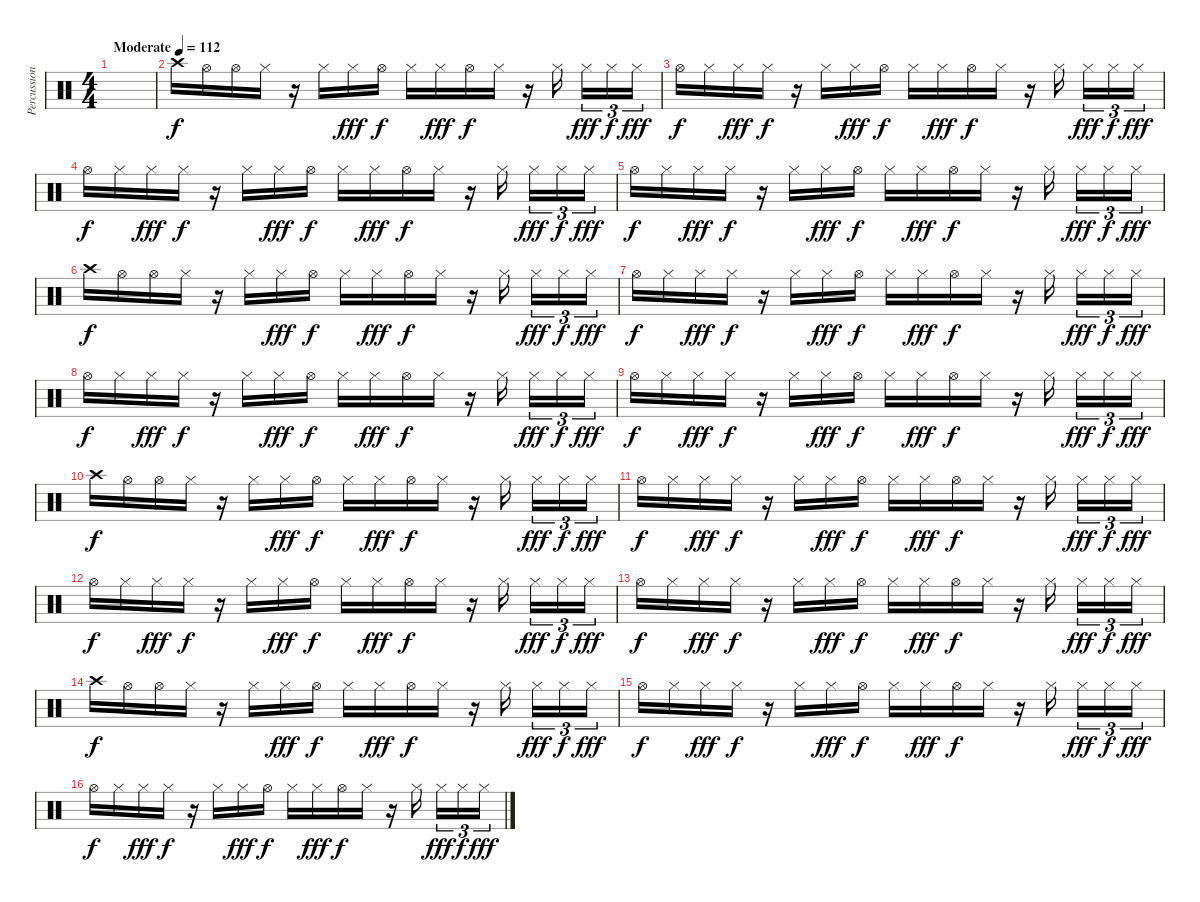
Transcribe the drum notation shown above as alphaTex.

\track ("Percussion" "Percussion") {instrument percussion}
\staff {score}
\articulation defaults
\ts (4 4)
\tempo (112 "Moderate")
\clef neutral
\ks c
|
"Crash high (hit)".16 "Hi-Hat (open)".16 "Hi-Hat (open)".16 "Hi-Hat (closed)".16 r.16 "Hi-Hat (closed)".16 "Hi-Hat (closed)".16{dy fff} "Hi-Hat (open)".16{dy f} "Hi-Hat (closed)".16 "Hi-Hat (closed)".16{dy fff} "Hi-Hat (open)".16{dy f} "Hi-Hat (closed)".16 r.16 "Hi-Hat (closed)".16{beam splitsecondary} "Hi-Hat (closed)".16{tu (3 2) dy fff} "Hi-Hat (closed)".16{tu (3 2) dy f} "Hi-Hat (closed)".16{tu (3 2) dy fff} |
"Hi-Hat (open)".16{dy f} "Hi-Hat (closed)".16 "Hi-Hat (closed)".16{dy fff} "Hi-Hat (closed)".16{dy f} r.16 "Hi-Hat (closed)".16 "Hi-Hat (closed)".16{dy fff} "Hi-Hat (open)".16{dy f} "Hi-Hat (closed)".16 "Hi-Hat (closed)".16{dy fff} "Hi-Hat (open)".16{dy f} "Hi-Hat (closed)".16 r.16 "Hi-Hat (closed)".16{beam splitsecondary} "Hi-Hat (closed)".16{tu (3 2) dy fff} "Hi-Hat (closed)".16{tu (3 2) dy f} "Hi-Hat (closed)".16{tu (3 2) dy fff} |
"Hi-Hat (open)".16{dy f} "Hi-Hat (closed)".16 "Hi-Hat (closed)".16{dy fff} "Hi-Hat (closed)".16{dy f} r.16 "Hi-Hat (closed)".16 "Hi-Hat (closed)".16{dy fff} "Hi-Hat (open)".16{dy f} "Hi-Hat (closed)".16 "Hi-Hat (closed)".16{dy fff} "Hi-Hat (open)".16{dy f} "Hi-Hat (closed)".16 r.16 "Hi-Hat (closed)".16{beam splitsecondary} "Hi-Hat (closed)".16{tu (3 2) dy fff} "Hi-Hat (closed)".16{tu (3 2) dy f} "Hi-Hat (closed)".16{tu (3 2) dy fff} |
"Hi-Hat (open)".16{dy f} "Hi-Hat (closed)".16 "Hi-Hat (closed)".16{dy fff} "Hi-Hat (closed)".16{dy f} r.16 "Hi-Hat (closed)".16 "Hi-Hat (closed)".16{dy fff} "Hi-Hat (open)".16{dy f} "Hi-Hat (closed)".16 "Hi-Hat (closed)".16{dy fff} "Hi-Hat (open)".16{dy f} "Hi-Hat (closed)".16 r.16 "Hi-Hat (closed)".16{beam splitsecondary} "Hi-Hat (closed)".16{tu (3 2) dy fff} "Hi-Hat (closed)".16{tu (3 2) dy f} "Hi-Hat (closed)".16{tu (3 2) dy fff} |
"Crash high (hit)".16{dy f} "Hi-Hat (open)".16 "Hi-Hat (open)".16 "Hi-Hat (closed)".16 r.16 "Hi-Hat (closed)".16 "Hi-Hat (closed)".16{dy fff} "Hi-Hat (open)".16{dy f} "Hi-Hat (closed)".16 "Hi-Hat (closed)".16{dy fff} "Hi-Hat (open)".16{dy f} "Hi-Hat (closed)".16 r.16 "Hi-Hat (closed)".16{beam splitsecondary} "Hi-Hat (closed)".16{tu (3 2) dy fff} "Hi-Hat (closed)".16{tu (3 2) dy f} "Hi-Hat (closed)".16{tu (3 2) dy fff} |
"Hi-Hat (open)".16{dy f} "Hi-Hat (closed)".16 "Hi-Hat (closed)".16{dy fff} "Hi-Hat (closed)".16{dy f} r.16 "Hi-Hat (closed)".16 "Hi-Hat (closed)".16{dy fff} "Hi-Hat (open)".16{dy f} "Hi-Hat (closed)".16 "Hi-Hat (closed)".16{dy fff} "Hi-Hat (open)".16{dy f} "Hi-Hat (closed)".16 r.16 "Hi-Hat (closed)".16{beam splitsecondary} "Hi-Hat (closed)".16{tu (3 2) dy fff} "Hi-Hat (closed)".16{tu (3 2) dy f} "Hi-Hat (closed)".16{tu (3 2) dy fff} |
"Hi-Hat (open)".16{dy f} "Hi-Hat (closed)".16 "Hi-Hat (closed)".16{dy fff} "Hi-Hat (closed)".16{dy f} r.16 "Hi-Hat (closed)".16 "Hi-Hat (closed)".16{dy fff} "Hi-Hat (open)".16{dy f} "Hi-Hat (closed)".16 "Hi-Hat (closed)".16{dy fff} "Hi-Hat (open)".16{dy f} "Hi-Hat (closed)".16 r.16 "Hi-Hat (closed)".16{beam splitsecondary} "Hi-Hat (closed)".16{tu (3 2) dy fff} "Hi-Hat (closed)".16{tu (3 2) dy f} "Hi-Hat (closed)".16{tu (3 2) dy fff} |
"Hi-Hat (open)".16{dy f} "Hi-Hat (closed)".16 "Hi-Hat (closed)".16{dy fff} "Hi-Hat (closed)".16{dy f} r.16 "Hi-Hat (closed)".16 "Hi-Hat (closed)".16{dy fff} "Hi-Hat (open)".16{dy f} "Hi-Hat (closed)".16 "Hi-Hat (closed)".16{dy fff} "Hi-Hat (open)".16{dy f} "Hi-Hat (closed)".16 r.16 "Hi-Hat (closed)".16{beam splitsecondary} "Hi-Hat (closed)".16{tu (3 2) dy fff} "Hi-Hat (closed)".16{tu (3 2) dy f} "Hi-Hat (closed)".16{tu (3 2) dy fff} |
"Crash high (hit)".16{dy f} "Hi-Hat (open)".16 "Hi-Hat (open)".16 "Hi-Hat (closed)".16 r.16 "Hi-Hat (closed)".16 "Hi-Hat (closed)".16{dy fff} "Hi-Hat (open)".16{dy f} "Hi-Hat (closed)".16 "Hi-Hat (closed)".16{dy fff} "Hi-Hat (open)".16{dy f} "Hi-Hat (closed)".16 r.16 "Hi-Hat (closed)".16{beam splitsecondary} "Hi-Hat (closed)".16{tu (3 2) dy fff} "Hi-Hat (closed)".16{tu (3 2) dy f} "Hi-Hat (closed)".16{tu (3 2) dy fff} |
"Hi-Hat (open)".16{dy f} "Hi-Hat (closed)".16 "Hi-Hat (closed)".16{dy fff} "Hi-Hat (closed)".16{dy f} r.16 "Hi-Hat (closed)".16 "Hi-Hat (closed)".16{dy fff} "Hi-Hat (open)".16{dy f} "Hi-Hat (closed)".16 "Hi-Hat (closed)".16{dy fff} "Hi-Hat (open)".16{dy f} "Hi-Hat (closed)".16 r.16 "Hi-Hat (closed)".16{beam splitsecondary} "Hi-Hat (closed)".16{tu (3 2) dy fff} "Hi-Hat (closed)".16{tu (3 2) dy f} "Hi-Hat (closed)".16{tu (3 2) dy fff} |
"Hi-Hat (open)".16{dy f} "Hi-Hat (closed)".16 "Hi-Hat (closed)".16{dy fff} "Hi-Hat (closed)".16{dy f} r.16 "Hi-Hat (closed)".16 "Hi-Hat (closed)".16{dy fff} "Hi-Hat (open)".16{dy f} "Hi-Hat (closed)".16 "Hi-Hat (closed)".16{dy fff} "Hi-Hat (open)".16{dy f} "Hi-Hat (closed)".16 r.16 "Hi-Hat (closed)".16{beam splitsecondary} "Hi-Hat (closed)".16{tu (3 2) dy fff} "Hi-Hat (closed)".16{tu (3 2) dy f} "Hi-Hat (closed)".16{tu (3 2) dy fff} |
"Hi-Hat (open)".16{dy f} "Hi-Hat (closed)".16 "Hi-Hat (closed)".16{dy fff} "Hi-Hat (closed)".16{dy f} r.16 "Hi-Hat (closed)".16 "Hi-Hat (closed)".16{dy fff} "Hi-Hat (open)".16{dy f} "Hi-Hat (closed)".16 "Hi-Hat (closed)".16{dy fff} "Hi-Hat (open)".16{dy f} "Hi-Hat (closed)".16 r.16 "Hi-Hat (closed)".16{beam splitsecondary} "Hi-Hat (closed)".16{tu (3 2) dy fff} "Hi-Hat (closed)".16{tu (3 2) dy f} "Hi-Hat (closed)".16{tu (3 2) dy fff} |
"Crash high (hit)".16{dy f} "Hi-Hat (open)".16 "Hi-Hat (open)".16 "Hi-Hat (closed)".16 r.16 "Hi-Hat (closed)".16 "Hi-Hat (closed)".16{dy fff} "Hi-Hat (open)".16{dy f} "Hi-Hat (closed)".16 "Hi-Hat (closed)".16{dy fff} "Hi-Hat (open)".16{dy f} "Hi-Hat (closed)".16 r.16 "Hi-Hat (closed)".16{beam splitsecondary} "Hi-Hat (closed)".16{tu (3 2) dy fff} "Hi-Hat (closed)".16{tu (3 2) dy f} "Hi-Hat (closed)".16{tu (3 2) dy fff} |
"Hi-Hat (open)".16{dy f} "Hi-Hat (closed)".16 "Hi-Hat (closed)".16{dy fff} "Hi-Hat (closed)".16{dy f} r.16 "Hi-Hat (closed)".16 "Hi-Hat (closed)".16{dy fff} "Hi-Hat (open)".16{dy f} "Hi-Hat (closed)".16 "Hi-Hat (closed)".16{dy fff} "Hi-Hat (open)".16{dy f} "Hi-Hat (closed)".16 r.16 "Hi-Hat (closed)".16{beam splitsecondary} "Hi-Hat (closed)".16{tu (3 2) dy fff} "Hi-Hat (closed)".16{tu (3 2) dy f} "Hi-Hat (closed)".16{tu (3 2) dy fff} |
"Hi-Hat (open)".16{dy f} "Hi-Hat (closed)".16 "Hi-Hat (closed)".16{dy fff} "Hi-Hat (closed)".16{dy f} r.16 "Hi-Hat (closed)".16 "Hi-Hat (closed)".16{dy fff} "Hi-Hat (open)".16{dy f} "Hi-Hat (closed)".16 "Hi-Hat (closed)".16{dy fff} "Hi-Hat (open)".16{dy f} "Hi-Hat (closed)".16 r.16 "Hi-Hat (closed)".16{beam splitsecondary} "Hi-Hat (closed)".16{tu (3 2) dy fff} "Hi-Hat (closed)".16{tu (3 2) dy f} "Hi-Hat (closed)".16{tu (3 2) dy fff}
